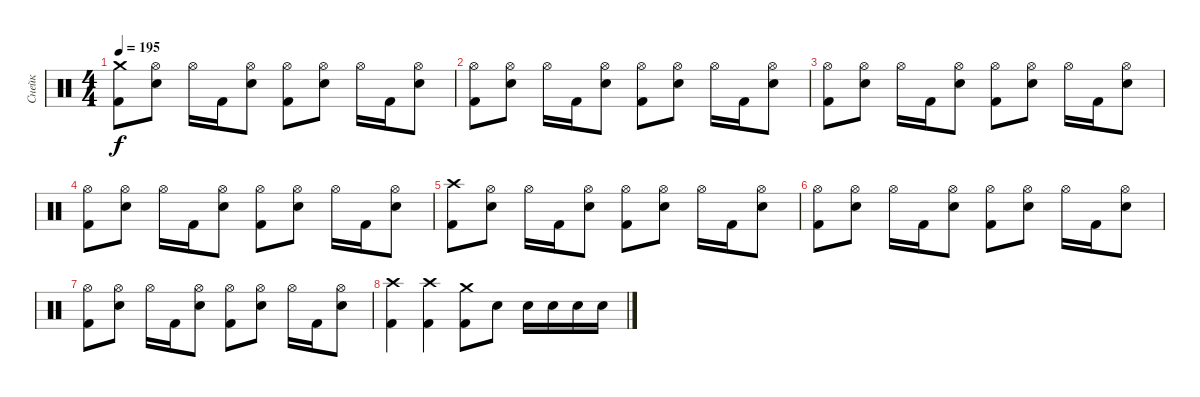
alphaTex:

\track ("Снейк" "Снейк") {instrument percussion}
\staff {score}
\articulation defaults
\ts (4 4)
\tempo 195
\clef neutral
\ks c
("Kick (hit) 2" "Crash medium (hit)").8{dy f} ("Electric Snare (hit)" "Hi-Hat (open)").8 "Hi-Hat (open)".16 "Kick (hit) 2".16 ("Electric Snare (hit)" "Hi-Hat (open)").8 ("Kick (hit) 2" "Hi-Hat (open)").8 ("Electric Snare (hit)" "Hi-Hat (open)").8 "Hi-Hat (open)".16 "Kick (hit) 2".16 ("Electric Snare (hit)" "Hi-Hat (open)").8 |
("Kick (hit) 2" "Hi-Hat (open)").8 ("Electric Snare (hit)" "Hi-Hat (open)").8 "Hi-Hat (open)".16 "Kick (hit) 2".16 ("Electric Snare (hit)" "Hi-Hat (open)").8 ("Kick (hit) 2" "Hi-Hat (open)").8 ("Electric Snare (hit)" "Hi-Hat (open)").8 "Hi-Hat (open)".16 "Kick (hit) 2".16 ("Electric Snare (hit)" "Hi-Hat (open)").8 |
("Kick (hit) 2" "Hi-Hat (open)").8 ("Electric Snare (hit)" "Hi-Hat (open)").8 "Hi-Hat (open)".16 "Kick (hit) 2".16 ("Electric Snare (hit)" "Hi-Hat (open)").8 ("Kick (hit) 2" "Hi-Hat (open)").8 ("Electric Snare (hit)" "Hi-Hat (open)").8 "Hi-Hat (open)".16 "Kick (hit) 2".16 ("Electric Snare (hit)" "Hi-Hat (open)").8 |
("Kick (hit) 2" "Hi-Hat (open)").8 ("Electric Snare (hit)" "Hi-Hat (open)").8 "Hi-Hat (open)".16 "Kick (hit) 2".16 ("Electric Snare (hit)" "Hi-Hat (open)").8 ("Kick (hit) 2" "Hi-Hat (open)").8 ("Electric Snare (hit)" "Hi-Hat (open)").8 "Hi-Hat (open)".16 "Kick (hit) 2".16 ("Electric Snare (hit)" "Hi-Hat (open)").8 |
("Kick (hit) 2" "Crash high (hit)").8 ("Electric Snare (hit)" "Hi-Hat (open)").8 "Hi-Hat (open)".16 "Kick (hit) 2".16 ("Electric Snare (hit)" "Hi-Hat (open)").8 ("Kick (hit) 2" "Hi-Hat (open)").8 ("Electric Snare (hit)" "Hi-Hat (open)").8 "Hi-Hat (open)".16 "Kick (hit) 2".16 ("Electric Snare (hit)" "Hi-Hat (open)").8 |
("Kick (hit) 2" "Hi-Hat (open)").8 ("Electric Snare (hit)" "Hi-Hat (open)").8 "Hi-Hat (open)".16 "Kick (hit) 2".16 ("Electric Snare (hit)" "Hi-Hat (open)").8 ("Kick (hit) 2" "Hi-Hat (open)").8 ("Electric Snare (hit)" "Hi-Hat (open)").8 "Hi-Hat (open)".16 "Kick (hit) 2".16 ("Electric Snare (hit)" "Hi-Hat (open)").8 |
("Kick (hit) 2" "Hi-Hat (open)").8 ("Electric Snare (hit)" "Hi-Hat (open)").8 "Hi-Hat (open)".16 "Kick (hit) 2".16 ("Electric Snare (hit)" "Hi-Hat (open)").8 ("Kick (hit) 2" "Hi-Hat (open)").8 ("Electric Snare (hit)" "Hi-Hat (open)").8 "Hi-Hat (open)".16 "Kick (hit) 2".16 ("Electric Snare (hit)" "Hi-Hat (open)").8 |
("Crash high (hit)" "Kick (hit) 2").4 ("Crash high (hit)" "Kick (hit) 2").4 ("Crash medium (hit)" "Kick (hit) 2").8 "Electric Snare (hit)".8 "Electric Snare (hit)".16 "Electric Snare (hit)".16 "Electric Snare (hit)".16 "Electric Snare (hit)".16
